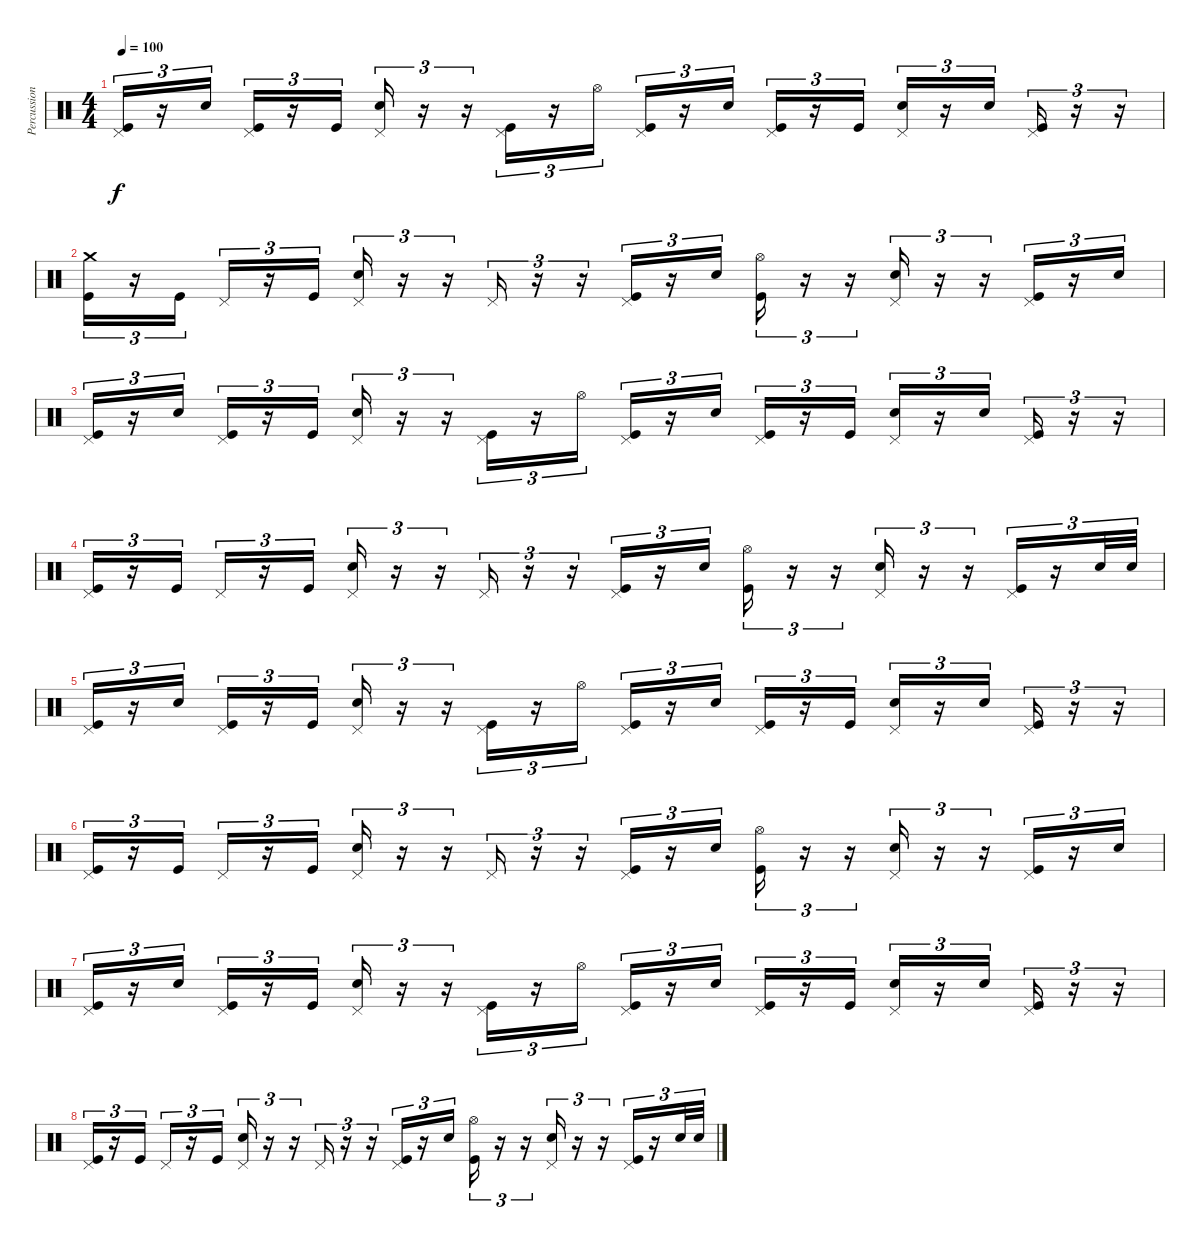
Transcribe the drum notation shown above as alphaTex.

\track ("Percussion" "Percussion") {instrument percussion}
\staff {score}
\articulation defaults
\ts (4 4)
\tempo 100
\clef neutral
\ks c
("Pedal Hi-Hat (hit)" "Kick (hit)").16{tu (3 2) dy f} r.16{tu (3 2)} "Electric Snare (hit)".16{tu (3 2)} ("Pedal Hi-Hat (hit)" "Kick (hit)").16{tu (3 2)} r.16{tu (3 2)} "Kick (hit)".16{tu (3 2)} ("Pedal Hi-Hat (hit)" "Electric Snare (hit)").16{tu (3 2)} r.16{tu (3 2)} r.16{tu (3 2)} ("Pedal Hi-Hat (hit)" "Kick (hit)").16{tu (3 2)} r.16{tu (3 2)} "Hi-Hat (open)".16{tu (3 2)} ("Pedal Hi-Hat (hit)" "Kick (hit)").16{tu (3 2)} r.16{tu (3 2)} "Electric Snare (hit)".16{tu (3 2)} ("Pedal Hi-Hat (hit)" "Kick (hit)").16{tu (3 2)} r.16{tu (3 2)} "Kick (hit)".16{tu (3 2)} ("Pedal Hi-Hat (hit)" "Electric Snare (hit)").16{tu (3 2)} r.16{tu (3 2)} "Electric Snare (hit)".16{tu (3 2)} ("Pedal Hi-Hat (hit)" "Kick (hit)").16{tu (3 2)} r.16{tu (3 2)} r.16{tu (3 2)} |
("Crash medium (hit)" "Kick (hit)").16{tu (3 2)} r.16{tu (3 2)} "Kick (hit)".16{tu (3 2)} "Pedal Hi-Hat (hit)".16{tu (3 2)} r.16{tu (3 2)} "Kick (hit)".16{tu (3 2)} ("Pedal Hi-Hat (hit)" "Electric Snare (hit)").16{tu (3 2)} r.16{tu (3 2)} r.16{tu (3 2)} "Pedal Hi-Hat (hit)".16{tu (3 2)} r.16{tu (3 2)} r.16{tu (3 2)} ("Pedal Hi-Hat (hit)" "Kick (hit)").16{tu (3 2)} r.16{tu (3 2)} "Electric Snare (hit)".16{tu (3 2)} ("Hi-Hat (open)" "Kick (hit)").16{tu (3 2)} r.16{tu (3 2)} r.16{tu (3 2)} ("Pedal Hi-Hat (hit)" "Electric Snare (hit)").16{tu (3 2)} r.16{tu (3 2)} r.16{tu (3 2)} ("Pedal Hi-Hat (hit)" "Kick (hit)").16{tu (3 2)} r.16{tu (3 2)} "Electric Snare (hit)".16{tu (3 2)} |
("Pedal Hi-Hat (hit)" "Kick (hit)").16{tu (3 2)} r.16{tu (3 2)} "Electric Snare (hit)".16{tu (3 2)} ("Pedal Hi-Hat (hit)" "Kick (hit)").16{tu (3 2)} r.16{tu (3 2)} "Kick (hit)".16{tu (3 2)} ("Pedal Hi-Hat (hit)" "Electric Snare (hit)").16{tu (3 2)} r.16{tu (3 2)} r.16{tu (3 2)} ("Pedal Hi-Hat (hit)" "Kick (hit)").16{tu (3 2)} r.16{tu (3 2)} "Hi-Hat (open)".16{tu (3 2)} ("Pedal Hi-Hat (hit)" "Kick (hit)").16{tu (3 2)} r.16{tu (3 2)} "Electric Snare (hit)".16{tu (3 2)} ("Pedal Hi-Hat (hit)" "Kick (hit)").16{tu (3 2)} r.16{tu (3 2)} "Kick (hit)".16{tu (3 2)} ("Pedal Hi-Hat (hit)" "Electric Snare (hit)").16{tu (3 2)} r.16{tu (3 2)} "Electric Snare (hit)".16{tu (3 2)} ("Pedal Hi-Hat (hit)" "Kick (hit)").16{tu (3 2)} r.16{tu (3 2)} r.16{tu (3 2)} |
("Pedal Hi-Hat (hit)" "Kick (hit)").16{tu (3 2)} r.16{tu (3 2)} "Kick (hit)".16{tu (3 2)} "Pedal Hi-Hat (hit)".16{tu (3 2)} r.16{tu (3 2)} "Kick (hit)".16{tu (3 2)} ("Pedal Hi-Hat (hit)" "Electric Snare (hit)").16{tu (3 2)} r.16{tu (3 2)} r.16{tu (3 2)} "Pedal Hi-Hat (hit)".16{tu (3 2)} r.16{tu (3 2)} r.16{tu (3 2)} ("Pedal Hi-Hat (hit)" "Kick (hit)").16{tu (3 2)} r.16{tu (3 2)} "Electric Snare (hit)".16{tu (3 2)} ("Hi-Hat (open)" "Kick (hit)").16{tu (3 2)} r.16{tu (3 2)} r.16{tu (3 2)} ("Pedal Hi-Hat (hit)" "Electric Snare (hit)").16{tu (3 2)} r.16{tu (3 2)} r.16{tu (3 2)} ("Pedal Hi-Hat (hit)" "Kick (hit)").16{tu (3 2)} r.16{tu (3 2)} "Electric Snare (hit)".32{tu (3 2)} "Electric Snare (hit)".32{tu (3 2)} |
("Pedal Hi-Hat (hit)" "Kick (hit)").16{tu (3 2)} r.16{tu (3 2)} "Electric Snare (hit)".16{tu (3 2)} ("Pedal Hi-Hat (hit)" "Kick (hit)").16{tu (3 2)} r.16{tu (3 2)} "Kick (hit)".16{tu (3 2)} ("Pedal Hi-Hat (hit)" "Electric Snare (hit)").16{tu (3 2)} r.16{tu (3 2)} r.16{tu (3 2)} ("Pedal Hi-Hat (hit)" "Kick (hit)").16{tu (3 2)} r.16{tu (3 2)} "Hi-Hat (open)".16{tu (3 2)} ("Pedal Hi-Hat (hit)" "Kick (hit)").16{tu (3 2)} r.16{tu (3 2)} "Electric Snare (hit)".16{tu (3 2)} ("Pedal Hi-Hat (hit)" "Kick (hit)").16{tu (3 2)} r.16{tu (3 2)} "Kick (hit)".16{tu (3 2)} ("Pedal Hi-Hat (hit)" "Electric Snare (hit)").16{tu (3 2)} r.16{tu (3 2)} "Electric Snare (hit)".16{tu (3 2)} ("Pedal Hi-Hat (hit)" "Kick (hit)").16{tu (3 2)} r.16{tu (3 2)} r.16{tu (3 2)} |
("Pedal Hi-Hat (hit)" "Kick (hit)").16{tu (3 2)} r.16{tu (3 2)} "Kick (hit)".16{tu (3 2)} "Pedal Hi-Hat (hit)".16{tu (3 2)} r.16{tu (3 2)} "Kick (hit)".16{tu (3 2)} ("Pedal Hi-Hat (hit)" "Electric Snare (hit)").16{tu (3 2)} r.16{tu (3 2)} r.16{tu (3 2)} "Pedal Hi-Hat (hit)".16{tu (3 2)} r.16{tu (3 2)} r.16{tu (3 2)} ("Pedal Hi-Hat (hit)" "Kick (hit)").16{tu (3 2)} r.16{tu (3 2)} "Electric Snare (hit)".16{tu (3 2)} ("Hi-Hat (open)" "Kick (hit)").16{tu (3 2)} r.16{tu (3 2)} r.16{tu (3 2)} ("Pedal Hi-Hat (hit)" "Electric Snare (hit)").16{tu (3 2)} r.16{tu (3 2)} r.16{tu (3 2)} ("Pedal Hi-Hat (hit)" "Kick (hit)").16{tu (3 2)} r.16{tu (3 2)} "Electric Snare (hit)".16{tu (3 2)} |
("Pedal Hi-Hat (hit)" "Kick (hit)").16{tu (3 2)} r.16{tu (3 2)} "Electric Snare (hit)".16{tu (3 2)} ("Pedal Hi-Hat (hit)" "Kick (hit)").16{tu (3 2)} r.16{tu (3 2)} "Kick (hit)".16{tu (3 2)} ("Pedal Hi-Hat (hit)" "Electric Snare (hit)").16{tu (3 2)} r.16{tu (3 2)} r.16{tu (3 2)} ("Pedal Hi-Hat (hit)" "Kick (hit)").16{tu (3 2)} r.16{tu (3 2)} "Hi-Hat (open)".16{tu (3 2)} ("Pedal Hi-Hat (hit)" "Kick (hit)").16{tu (3 2)} r.16{tu (3 2)} "Electric Snare (hit)".16{tu (3 2)} ("Pedal Hi-Hat (hit)" "Kick (hit)").16{tu (3 2)} r.16{tu (3 2)} "Kick (hit)".16{tu (3 2)} ("Pedal Hi-Hat (hit)" "Electric Snare (hit)").16{tu (3 2)} r.16{tu (3 2)} "Electric Snare (hit)".16{tu (3 2)} ("Pedal Hi-Hat (hit)" "Kick (hit)").16{tu (3 2)} r.16{tu (3 2)} r.16{tu (3 2)} |
("Pedal Hi-Hat (hit)" "Kick (hit)").16{tu (3 2)} r.16{tu (3 2)} "Kick (hit)".16{tu (3 2)} "Pedal Hi-Hat (hit)".16{tu (3 2)} r.16{tu (3 2)} "Kick (hit)".16{tu (3 2)} ("Pedal Hi-Hat (hit)" "Electric Snare (hit)").16{tu (3 2)} r.16{tu (3 2)} r.16{tu (3 2)} "Pedal Hi-Hat (hit)".16{tu (3 2)} r.16{tu (3 2)} r.16{tu (3 2)} ("Pedal Hi-Hat (hit)" "Kick (hit)").16{tu (3 2)} r.16{tu (3 2)} "Electric Snare (hit)".16{tu (3 2)} ("Hi-Hat (open)" "Kick (hit)").16{tu (3 2)} r.16{tu (3 2)} r.16{tu (3 2)} ("Pedal Hi-Hat (hit)" "Electric Snare (hit)").16{tu (3 2)} r.16{tu (3 2)} r.16{tu (3 2)} ("Pedal Hi-Hat (hit)" "Kick (hit)").16{tu (3 2)} r.16{tu (3 2)} "Electric Snare (hit)".32{tu (3 2)} "Electric Snare (hit)".32{tu (3 2)}
